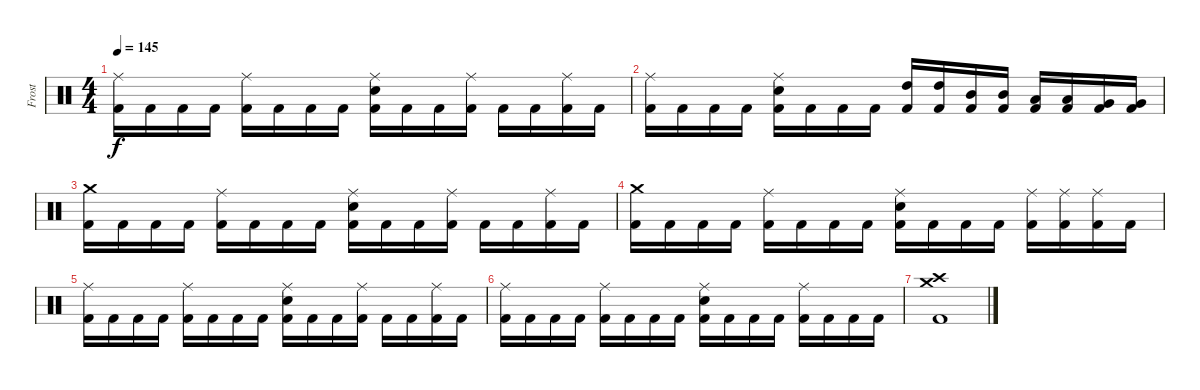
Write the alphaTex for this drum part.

\track ("Frost" "Frost") {instrument percussion}
\staff {score}
\articulation defaults
\ts (4 4)
\tempo 145
\clef neutral
\ks c
("Ride (middle)" "Kick (hit) 2").16{dy f} "Kick (hit) 2".16 "Kick (hit) 2".16 "Kick (hit) 2".16 ("Ride (middle)" "Kick (hit) 2").16 "Kick (hit) 2".16 "Kick (hit) 2".16 "Kick (hit) 2".16 ("Ride (middle)" "Electric Snare (hit)" "Kick (hit) 2").16 "Kick (hit) 2".16 "Kick (hit) 2".16 ("Ride (middle)" "Kick (hit) 2").16 "Kick (hit) 2".16 "Kick (hit) 2".16 ("Ride (middle)" "Kick (hit) 2").16 "Kick (hit) 2".16 |
("Ride (middle)" "Kick (hit) 2").16 "Kick (hit) 2".16 "Kick (hit) 2".16 "Kick (hit) 2".16 ("Ride (middle)" "Electric Snare (hit)" "Kick (hit) 2").16 "Kick (hit) 2".16 "Kick (hit) 2".16 "Kick (hit) 2".16 ("High Tom (hit)" "Kick (hit) 2").16 ("High Tom (hit)" "Kick (hit) 2").16 ("Mid Tom (hit)" "Kick (hit) 2").16 ("Mid Tom (hit)" "Kick (hit) 2").16 ("Low Tom (hit)" "Kick (hit) 2").16 ("Low Tom (hit)" "Kick (hit) 2").16 ("Very Low Tom (hit)" "Kick (hit) 2").16 ("Very Low Tom (hit)" "Kick (hit) 2").16 |
("Crash medium (hit)" "Kick (hit) 2").16 "Kick (hit) 2".16 "Kick (hit) 2".16 "Kick (hit) 2".16 ("Ride (middle)" "Kick (hit) 2").16 "Kick (hit) 2".16 "Kick (hit) 2".16 "Kick (hit) 2".16 ("Ride (middle)" "Electric Snare (hit)" "Kick (hit) 2").16 "Kick (hit) 2".16 "Kick (hit) 2".16 ("Ride (middle)" "Kick (hit) 2").16 "Kick (hit) 2".16 "Kick (hit) 2".16 ("Ride (middle)" "Kick (hit) 2").16 "Kick (hit) 2".16 |
("Crash medium (hit)" "Kick (hit) 2").16 "Kick (hit) 2".16 "Kick (hit) 2".16 "Kick (hit) 2".16 ("Ride (middle)" "Kick (hit) 2").16 "Kick (hit) 2".16 "Kick (hit) 2".16 "Kick (hit) 2".16 ("Ride (middle)" "Electric Snare (hit)" "Kick (hit) 2").16 "Kick (hit) 2".16 "Kick (hit) 2".16 "Kick (hit) 2".16 ("Ride (middle)" "Kick (hit) 2").16 ("Ride (middle)" "Kick (hit) 2").16 ("Ride (middle)" "Kick (hit) 2").16 "Kick (hit) 2".16 |
("Ride (middle)" "Kick (hit) 2").16 "Kick (hit) 2".16 "Kick (hit) 2".16 "Kick (hit) 2".16 ("Ride (middle)" "Kick (hit) 2").16 "Kick (hit) 2".16 "Kick (hit) 2".16 "Kick (hit) 2".16 ("Ride (middle)" "Electric Snare (hit)" "Kick (hit) 2").16 "Kick (hit) 2".16 "Kick (hit) 2".16 ("Ride (middle)" "Kick (hit) 2").16 "Kick (hit) 2".16 "Kick (hit) 2".16 ("Ride (middle)" "Kick (hit) 2").16 "Kick (hit) 2".16 |
("Ride (middle)" "Kick (hit) 2").16 "Kick (hit) 2".16 "Kick (hit) 2".16 "Kick (hit) 2".16 ("Ride (middle)" "Kick (hit) 2").16 "Kick (hit) 2".16 "Kick (hit) 2".16 "Kick (hit) 2".16 ("Ride (middle)" "Electric Snare (hit)" "Kick (hit) 2").16 "Kick (hit) 2".16 "Kick (hit) 2".16 "Kick (hit) 2".16 ("Ride (middle)" "Kick (hit) 2").16 "Kick (hit) 2".16 "Kick (hit) 2".16 "Kick (hit) 2".16 |
("Crash high (hit)" "Crash medium (hit)" "Kick (hit) 2").1
